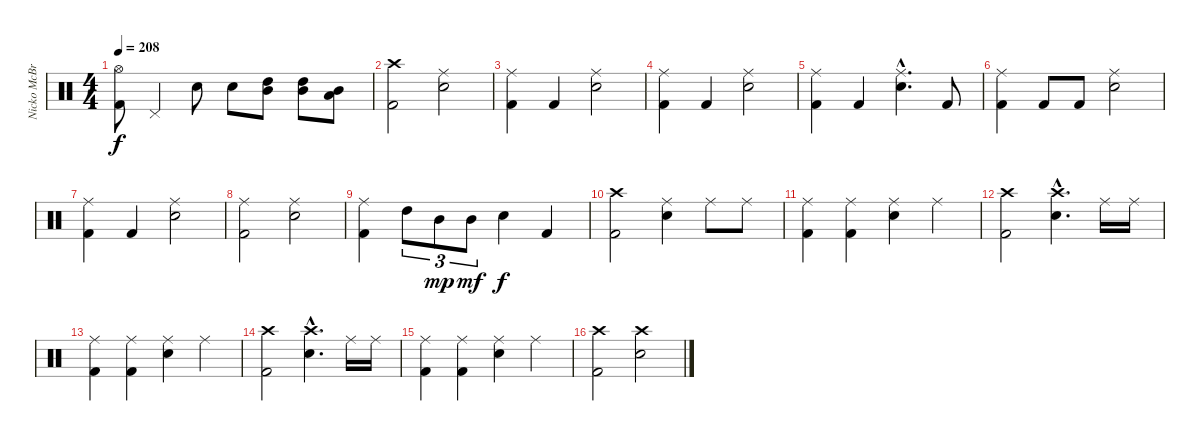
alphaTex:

\track ("Nicko McBrain" "Nicko McBr") {instrument percussion}
\staff {score}
\articulation defaults
\ts (4 4)
\tempo 208
\clef neutral
\ks c
("Hi-Hat (open)" "Kick (hit) 2").8{dy f} "Pedal Hi-Hat (hit)".4 "Electric Snare (hit)".8 "Electric Snare (hit)".8 ("High Tom (hit)" "Mid Tom (hit)").8 ("High Tom (hit)" "Mid Tom (hit)").8 ("Mid Tom (hit)" "Low Tom (hit)").8 |
("Crash high (hit)" "Kick (hit) 2").2 ("Ride (middle)" "Electric Snare (hit)").2 |
("Ride (middle)" "Kick (hit) 2").4 "Kick (hit) 2".4 ("Ride (middle)" "Electric Snare (hit)").2 |
("Ride (middle)" "Kick (hit) 2").4 "Kick (hit) 2".4 ("Ride (middle)" "Electric Snare (hit)").2 |
("Ride (middle)" "Kick (hit) 2").4 "Kick (hit) 2".4 ("Ride (middle)"{hac} "Electric Snare (hit)"{hac}).4{d} "Kick (hit) 2".8 |
("Ride (middle)" "Kick (hit) 2").4 "Kick (hit) 2".8 "Kick (hit) 2".8 ("Ride (middle)" "Electric Snare (hit)").2 |
("Ride (middle)" "Kick (hit) 2").4 "Kick (hit) 2".4 ("Ride (middle)" "Electric Snare (hit)").2 |
("Ride (middle)" "Kick (hit) 2").2 ("Ride (middle)" "Electric Snare (hit)").2 |
("Ride (middle)" "Kick (hit) 2").4 "High Tom (hit)".8{tu (3 2)} "Mid Tom (hit)".8{tu (3 2) dy mp} "Mid Tom (hit)".8{tu (3 2) dy mf} "Electric Snare (hit)".4{dy f} "Kick (hit) 2".4 |
("Crash high (hit)" "Kick (hit) 2").2 ("Ride (middle)" "Electric Snare (hit)").4 "Ride (middle)".8 "Ride (middle)".8 |
("Ride (middle)" "Kick (hit) 2").4 ("Ride (middle)" "Kick (hit) 2").4 ("Ride (middle)" "Electric Snare (hit)").4 "Ride (middle)".4 |
("Crash high (hit)" "Kick (hit) 2").2 ("Crash high (hit)"{hac} "Electric Snare (hit)"{hac}).4{d} "Ride (middle)".16 "Ride (middle)".16 |
("Ride (middle)" "Kick (hit) 2").4 ("Ride (middle)" "Kick (hit) 2").4 ("Ride (middle)" "Electric Snare (hit)").4 "Ride (middle)".4 |
("Crash high (hit)" "Kick (hit) 2").2 ("Crash high (hit)"{hac} "Electric Snare (hit)"{hac}).4{d} "Ride (middle)".16 "Ride (middle)".16 |
("Ride (middle)" "Kick (hit) 2").4 ("Ride (middle)" "Kick (hit) 2").4 ("Ride (middle)" "Electric Snare (hit)").4 "Ride (middle)".4 |
("Crash high (hit)" "Kick (hit) 2").2 ("Crash high (hit)" "Electric Snare (hit)").2
